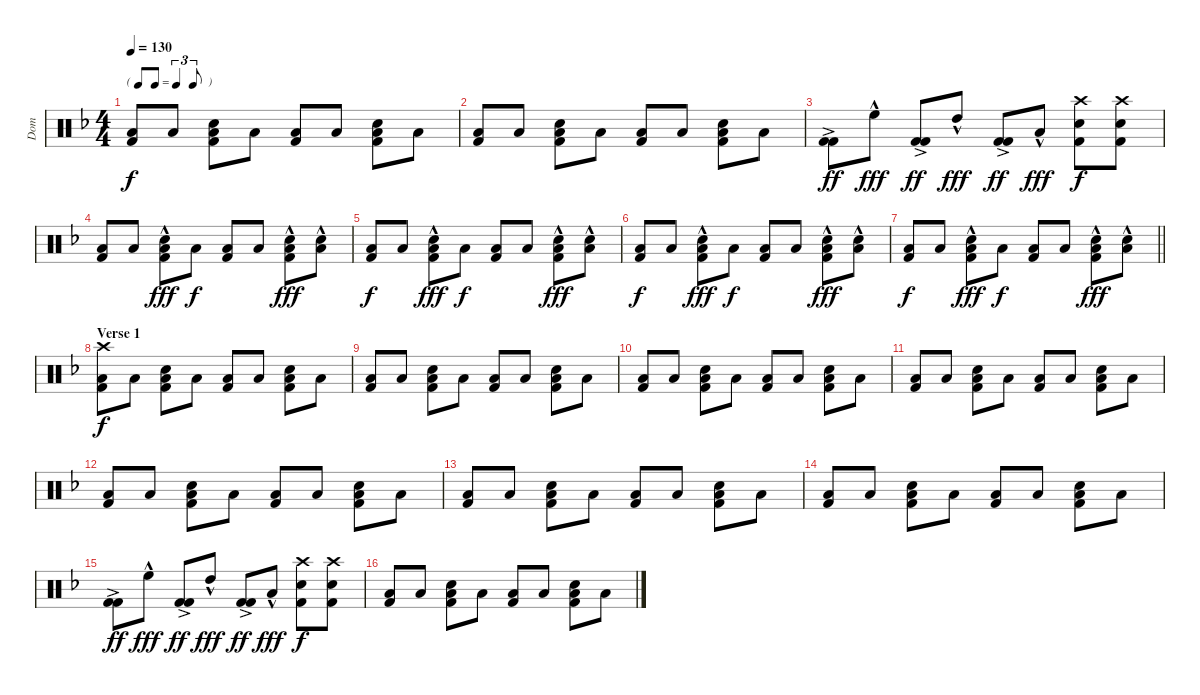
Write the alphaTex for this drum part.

\track ("Dom" "Dom") {instrument percussion}
\staff {score}
\articulation defaults
\ts (4 4)
\tf triplet8th
\tempo 130
\clef neutral
\ks dminor
("Low Tom (hit)" "Kick (hit) 2").8{dy f} "Low Tom (hit)".8 ("Electric Snare (hit)" "Low Tom (hit)" "Kick (hit) 2").8 "Low Tom (hit)".8 ("Low Tom (hit)" "Kick (hit) 2").8 "Low Tom (hit)".8 ("Electric Snare (hit)" "Low Tom (hit)" "Kick (hit) 2").8 "Low Tom (hit)".8 |
("Low Tom (hit)" "Kick (hit) 2").8 "Low Tom (hit)".8 ("Electric Snare (hit)" "Low Tom (hit)" "Kick (hit) 2").8 "Low Tom (hit)".8 ("Low Tom (hit)" "Kick (hit) 2").8 "Low Tom (hit)".8 ("Electric Snare (hit)" "Low Tom (hit)" "Kick (hit) 2").8 "Low Tom (hit)".8 |
("Kick (hit) 2"{ac} "Kick (hit) 2").8{dy ff} "High Floor Tom (hit)"{hac}.8{dy fff} ("Kick (hit) 2"{ac} "Kick (hit) 2").8{dy ff} "High Tom (hit)"{hac}.8{dy fff} ("Kick (hit) 2"{ac} "Kick (hit) 2").8{dy ff} "Low Tom (hit)"{hac}.8{dy fff} ("Crash high (hit)" "Electric Snare (hit)" "Kick (hit) 2").8{dy f} ("Crash high (hit)" "Electric Snare (hit)" "Kick (hit) 2").8 |
("Low Tom (hit)" "Kick (hit) 2").8{volume 16} "Low Tom (hit)".8 ("Electric Snare (hit)"{hac} "Low Tom (hit)" "Kick (hit) 2").8{dy fff} "Low Tom (hit)".8{dy f} ("Low Tom (hit)" "Kick (hit) 2").8 "Low Tom (hit)".8 ("Electric Snare (hit)"{hac} "Low Tom (hit)" "Kick (hit) 2").8{dy fff} ("Electric Snare (hit)"{hac} "Low Tom (hit)").8 |
("Low Tom (hit)" "Kick (hit) 2").8{dy f} "Low Tom (hit)".8 ("Electric Snare (hit)"{hac} "Low Tom (hit)" "Kick (hit) 2").8{dy fff} "Low Tom (hit)".8{dy f} ("Low Tom (hit)" "Kick (hit) 2").8 "Low Tom (hit)".8 ("Electric Snare (hit)"{hac} "Low Tom (hit)"{hac} "Kick (hit) 2").8{dy fff} ("Electric Snare (hit)"{hac} "Low Tom (hit)"{hac}).8 |
("Low Tom (hit)" "Kick (hit) 2").8{dy f} "Low Tom (hit)".8 ("Electric Snare (hit)"{hac} "Low Tom (hit)" "Kick (hit) 2").8{dy fff} "Low Tom (hit)".8{dy f} ("Low Tom (hit)" "Kick (hit) 2").8 "Low Tom (hit)".8 ("Electric Snare (hit)"{hac} "Low Tom (hit)"{hac} "Kick (hit) 2").8{dy fff} ("Electric Snare (hit)"{hac} "Low Tom (hit)"{hac}).8 |
\barLineRight lightlight
("Low Tom (hit)" "Kick (hit) 2").8{dy f} "Low Tom (hit)".8 ("Electric Snare (hit)"{hac} "Low Tom (hit)" "Kick (hit) 2").8{dy fff} "Low Tom (hit)".8{dy f} ("Low Tom (hit)" "Kick (hit) 2").8 "Low Tom (hit)".8 ("Electric Snare (hit)"{hac} "Low Tom (hit)"{hac} "Kick (hit) 2").8{dy fff} ("Electric Snare (hit)"{hac} "Low Tom (hit)"{hac}).8 |
\section ("" "Verse 1")
("Crash high (hit)" "Low Tom (hit)" "Kick (hit) 2").8{dy f} "Low Tom (hit)".8 ("Electric Snare (hit)" "Low Tom (hit)" "Kick (hit) 2").8 "Low Tom (hit)".8 ("Low Tom (hit)" "Kick (hit) 2").8 "Low Tom (hit)".8 ("Electric Snare (hit)" "Low Tom (hit)" "Kick (hit) 2").8 "Low Tom (hit)".8 |
("Low Tom (hit)" "Kick (hit) 2").8 "Low Tom (hit)".8 ("Electric Snare (hit)" "Low Tom (hit)" "Kick (hit) 2").8 "Low Tom (hit)".8 ("Low Tom (hit)" "Kick (hit) 2").8 "Low Tom (hit)".8 ("Electric Snare (hit)" "Low Tom (hit)" "Kick (hit) 2").8 "Low Tom (hit)".8 |
("Low Tom (hit)" "Kick (hit) 2").8 "Low Tom (hit)".8 ("Electric Snare (hit)" "Low Tom (hit)" "Kick (hit) 2").8 "Low Tom (hit)".8 ("Low Tom (hit)" "Kick (hit) 2").8 "Low Tom (hit)".8 ("Electric Snare (hit)" "Low Tom (hit)" "Kick (hit) 2").8 "Low Tom (hit)".8 |
("Low Tom (hit)" "Kick (hit) 2").8 "Low Tom (hit)".8 ("Electric Snare (hit)" "Low Tom (hit)" "Kick (hit) 2").8 "Low Tom (hit)".8 ("Low Tom (hit)" "Kick (hit) 2").8 "Low Tom (hit)".8 ("Electric Snare (hit)" "Low Tom (hit)" "Kick (hit) 2").8 "Low Tom (hit)".8 |
("Low Tom (hit)" "Kick (hit) 2").8 "Low Tom (hit)".8 ("Electric Snare (hit)" "Low Tom (hit)" "Kick (hit) 2").8 "Low Tom (hit)".8 ("Low Tom (hit)" "Kick (hit) 2").8 "Low Tom (hit)".8 ("Electric Snare (hit)" "Low Tom (hit)" "Kick (hit) 2").8 "Low Tom (hit)".8 |
("Low Tom (hit)" "Kick (hit) 2").8 "Low Tom (hit)".8 ("Electric Snare (hit)" "Low Tom (hit)" "Kick (hit) 2").8 "Low Tom (hit)".8 ("Low Tom (hit)" "Kick (hit) 2").8 "Low Tom (hit)".8 ("Electric Snare (hit)" "Low Tom (hit)" "Kick (hit) 2").8 "Low Tom (hit)".8 |
("Low Tom (hit)" "Kick (hit) 2").8 "Low Tom (hit)".8 ("Electric Snare (hit)" "Low Tom (hit)" "Kick (hit) 2").8 "Low Tom (hit)".8 ("Low Tom (hit)" "Kick (hit) 2").8 "Low Tom (hit)".8 ("Electric Snare (hit)" "Low Tom (hit)" "Kick (hit) 2").8 "Low Tom (hit)".8 |
("Kick (hit) 2"{ac} "Kick (hit) 2").8{dy ff} "High Floor Tom (hit)"{hac}.8{dy fff} ("Kick (hit) 2"{ac} "Kick (hit) 2").8{dy ff} "High Tom (hit)"{hac}.8{dy fff} ("Kick (hit) 2"{ac} "Kick (hit) 2").8{dy ff} "Low Tom (hit)"{hac}.8{dy fff} ("Crash high (hit)" "Electric Snare (hit)" "Kick (hit) 2").8{dy f} ("Crash high (hit)" "Electric Snare (hit)" "Kick (hit) 2").8 |
("Low Tom (hit)" "Kick (hit) 2").8 "Low Tom (hit)".8 ("Electric Snare (hit)" "Low Tom (hit)" "Kick (hit) 2").8 "Low Tom (hit)".8 ("Low Tom (hit)" "Kick (hit) 2").8 "Low Tom (hit)".8 ("Electric Snare (hit)" "Low Tom (hit)" "Kick (hit) 2").8 "Low Tom (hit)".8
